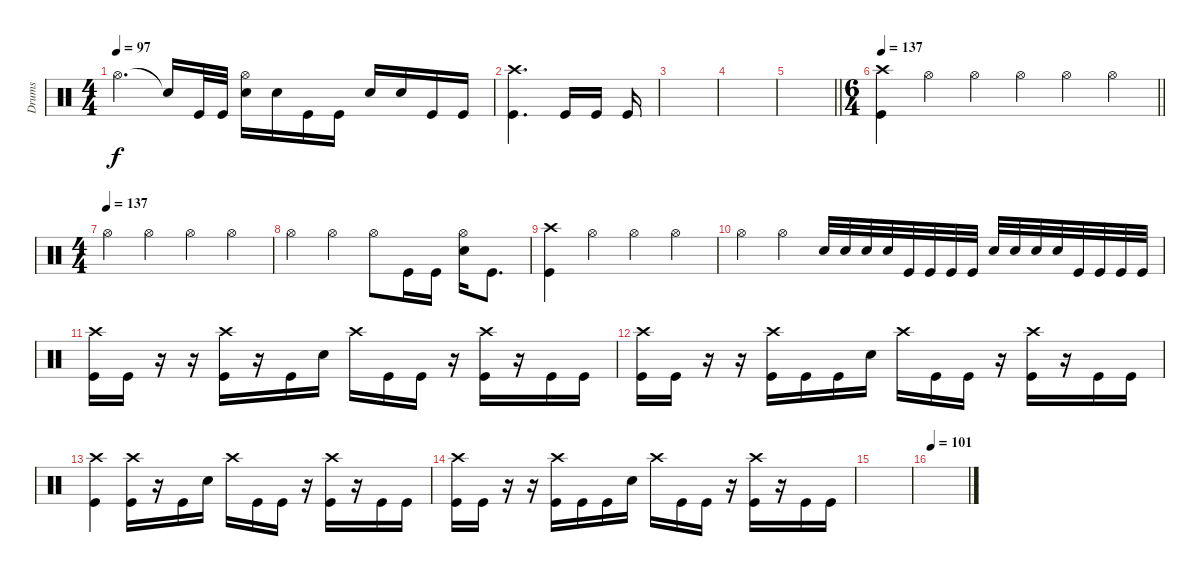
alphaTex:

\track ("Drums" "Drums") {instrument percussion}
\staff
\articulation defaults
\ts (4 4)
\tempo 97
\clef neutral
\ks c "Hi-Hat (open)".4{d dy f} "Snare (hit)"{t}.16 "Kick (hit)".32 "Kick (hit)".32
("Hi-Hat (open)" "Electric Snare (hit)").16 "Electric Snare (hit)".16 "Kick (hit)".16 "Kick (hit)".16 "Electric Snare (hit)".16 "Electric Snare (hit)".16 "Kick (hit)".16 "Kick (hit)".16 |
("Crash high (hit)" "Kick (hit)").4{d} "Kick (hit)".16 "Kick (hit)".16 "Kick (hit)".16 |
|
|
\barLineRight lightlight
|
\ts (6 4)
\tempo 137
\barLineRight lightlight
("Crash high (hit)" "Kick (hit)").4 "Hi-Hat (open)".4 "Hi-Hat (open)".4 "Hi-Hat (open)".4 "Hi-Hat (open)".4 "Hi-Hat (open)".4 |
\ts (4 4)
\section ("" "")
\tempo (137)
"Hi-Hat (open)".4 "Hi-Hat (open)".4 "Hi-Hat (open)".4 "Hi-Hat (open)".4 |
"Hi-Hat (open)".4 "Hi-Hat (open)".4 "Hi-Hat (open)".8 "Kick (hit)".16 "Kick (hit)".16 ("Hi-Hat (open)" "Electric Snare (hit)").16 "Kick (hit)".8{d} |
("Crash high (hit)" "Kick (hit)").4 "Hi-Hat (open)".4 "Hi-Hat (open)".4 "Hi-Hat (open)".4 |
"Hi-Hat (open)".4 "Hi-Hat (open)".4 "Electric Snare (hit)".32 "Electric Snare (hit)".32 "Electric Snare (hit)".32 "Electric Snare (hit)".32 "Kick (hit)".32 "Kick (hit)".32 "Kick (hit)".32 "Kick (hit)".32 "Electric Snare (hit)".32 "Electric Snare (hit)".32 "Electric Snare (hit)".32 "Electric Snare (hit)".32 "Kick (hit)".32 "Kick (hit)".32 "Kick (hit)".32 "Kick (hit)".32 |
("Crash high (hit)" "Kick (hit)").16 "Kick (hit)".16 r.16 r.16 ("Crash high (hit)" "Kick (hit)").16 r.16 "Kick (hit)".16 "Electric Snare (hit)".16 "Crash high (hit)".16 "Kick (hit)".16 "Kick (hit)".16 r.16 ("Crash high (hit)" "Kick (hit)").16 r.16 "Kick (hit)".16 "Kick (hit)".16 |
("Crash high (hit)" "Kick (hit)").16 "Kick (hit)".16 r.16 r.16 ("Crash high (hit)" "Kick (hit)").16 "Kick (hit)".16 "Kick (hit)".16 "Electric Snare (hit)".16 "Crash high (hit)".16 "Kick (hit)".16 "Kick (hit)".16 r.16 ("Crash high (hit)" "Kick (hit)").16 r.16 "Kick (hit)".16 "Kick (hit)".16 |
("Crash high (hit)" "Kick (hit)").4 ("Crash high (hit)" "Kick (hit)").16 r.16 "Kick (hit)".16 "Electric Snare (hit)".16 "Crash high (hit)".16 "Kick (hit)".16 "Kick (hit)".16 r.16 ("Crash high (hit)" "Kick (hit)").16 r.16 "Kick (hit)".16 "Kick (hit)".16 |
("Crash high (hit)" "Kick (hit)").16 "Kick (hit)".16 r.16 r.16 ("Crash high (hit)" "Kick (hit)").16 "Kick (hit)".16 "Kick (hit)".16 "Electric Snare (hit)".16 "Crash high (hit)".16 "Kick (hit)".16 "Kick (hit)".16 r.16 ("Crash high (hit)" "Kick (hit)").16 r.16 "Kick (hit)".16 "Kick (hit)".16 |
|
\tempo 101
